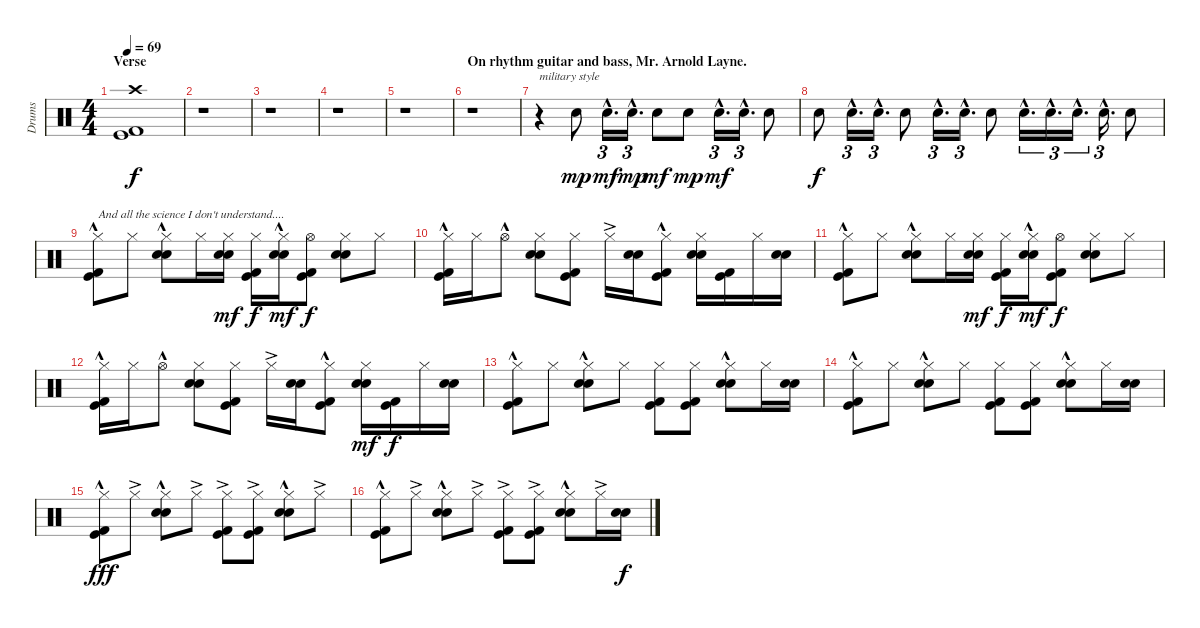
\track ("Drums" "Drums") {instrument percussion}
\staff {score}
\articulation defaults
\ts (4 4)
\section ("" "Verse")
\tempo 69
\clef neutral
\ks c
("Crash high (hit)" "Kick (hit) 2" "Kick (hit)").1{dy f} |
r.1 |
r.1 |
r.1 |
r.1 |
\section ("" "On rhythm guitar and bass, Mr. Arnold Layne.")
r.1 |
r.4{txt "military style "} "Snare (hit) 2".8{dy mp} "Snare (hit) 2"{hac}.16{d tu (3 2) dy mf} "Snare (hit) 2"{hac}.16{d tu (3 2) dy mp} "Snare (hit) 2".8{dy mf} "Snare (hit) 2".8{dy mp} "Snare (hit) 2"{hac}.16{d tu (3 2) dy mf} "Snare (hit) 2"{hac}.16{d tu (3 2)} "Snare (hit) 2".8 |
"Snare (hit) 2".8{dy f} "Snare (hit) 2"{hac}.16{d tu (3 2)} "Snare (hit) 2"{hac}.16{d tu (3 2)} "Snare (hit) 2".8 "Snare (hit) 2"{hac}.16{d tu (3 2)} "Snare (hit) 2"{hac}.16{d tu (3 2)} "Snare (hit) 2".8 "Snare (hit) 2"{hac}.16{d tu (3 2)} "Snare (hit) 2"{hac}.16{d tu (3 2)} "Snare (hit) 2"{hac}.16{d tu (3 2)} "Snare (hit) 2"{hac}.16{d tu (3 2)} "Snare (hit) 2".8 |
("Hi-Hat (closed)"{hac} "Kick (hit) 2" "Kick (hit)").8{txt "And all the science I don't understand...."} "Hi-Hat (closed)".8 ("Hi-Hat (closed)"{hac} "Snare (hit) 2" "Electric Snare (hit)").8 "Hi-Hat (closed)".16 ("Hi-Hat (closed)" "Snare (hit) 2" "Electric Snare (hit)").16{dy mf} ("Hi-Hat (closed)" "Kick (hit) 2" "Kick (hit)").16{dy f} ("Hi-Hat (closed)"{hac} "Snare (hit) 2" "Electric Snare (hit)").16{dy mf} ("Hi-Hat (open)" "Kick (hit) 2" "Kick (hit)").8{dy f} ("Hi-Hat (closed)" "Snare (hit) 2" "Electric Snare (hit)").8 "Hi-Hat (closed)".8 |
("Hi-Hat (closed)"{hac} "Kick (hit) 2" "Kick (hit)").16 "Hi-Hat (closed)".16 "Hi-Hat (open)"{hac}.8 ("Hi-Hat (closed)" "Snare (hit) 2" "Electric Snare (hit)").8 ("Hi-Hat (closed)" "Kick (hit) 2" "Kick (hit)").8 "Hi-Hat (closed)"{ac}.16 ("Snare (hit) 2" "Electric Snare (hit)").16 ("Hi-Hat (closed)"{hac} "Kick (hit) 2" "Kick (hit)").8 ("Hi-Hat (closed)" "Snare (hit) 2" "Electric Snare (hit)").16 ("Kick (hit) 2" "Kick (hit)").16 "Hi-Hat (closed)".16 ("Snare (hit) 2" "Electric Snare (hit)").16 |
("Hi-Hat (closed)"{hac} "Kick (hit) 2" "Kick (hit)").8 "Hi-Hat (closed)".8 ("Hi-Hat (closed)"{hac} "Snare (hit) 2" "Electric Snare (hit)").8 "Hi-Hat (closed)".16 ("Hi-Hat (closed)" "Snare (hit) 2" "Electric Snare (hit)").16{dy mf} ("Hi-Hat (closed)" "Kick (hit) 2" "Kick (hit)").16{dy f} ("Hi-Hat (closed)"{hac} "Snare (hit) 2" "Electric Snare (hit)").16{dy mf} ("Hi-Hat (open)" "Kick (hit) 2" "Kick (hit)").8{dy f} ("Hi-Hat (closed)" "Snare (hit) 2" "Electric Snare (hit)").8 "Hi-Hat (closed)".8 |
("Hi-Hat (closed)"{hac} "Kick (hit) 2" "Kick (hit)").16 "Hi-Hat (closed)".16 "Hi-Hat (open)"{hac}.8 ("Hi-Hat (closed)" "Snare (hit) 2" "Electric Snare (hit)").8 ("Hi-Hat (closed)" "Kick (hit) 2" "Kick (hit)").8 "Hi-Hat (closed)"{ac}.16 ("Snare (hit) 2" "Electric Snare (hit)").16 ("Hi-Hat (closed)"{hac} "Kick (hit) 2" "Kick (hit)").8 ("Hi-Hat (closed)" "Snare (hit) 2" "Electric Snare (hit)").16{dy mf} ("Kick (hit) 2" "Kick (hit)").16{dy f} "Hi-Hat (closed)".16 ("Snare (hit) 2" "Electric Snare (hit)").16 |
("Hi-Hat (closed)"{hac} "Kick (hit) 2" "Kick (hit)").8 "Hi-Hat (closed)".8 ("Hi-Hat (closed)"{hac} "Snare (hit) 2" "Electric Snare (hit)").8 "Hi-Hat (closed)".8 ("Hi-Hat (closed)" "Kick (hit) 2" "Kick (hit)").8 ("Hi-Hat (closed)" "Kick (hit) 2" "Kick (hit)").8 ("Hi-Hat (closed)"{hac} "Snare (hit) 2" "Electric Snare (hit)").8 "Hi-Hat (closed)".16 ("Snare (hit) 2" "Electric Snare (hit)").16 |
("Hi-Hat (closed)"{hac} "Kick (hit) 2" "Kick (hit)").8 "Hi-Hat (closed)".8 ("Hi-Hat (closed)"{hac} "Snare (hit) 2" "Electric Snare (hit)").8 "Hi-Hat (closed)".8 ("Hi-Hat (closed)" "Kick (hit) 2" "Kick (hit)").8 ("Hi-Hat (closed)" "Kick (hit) 2" "Kick (hit)").8 ("Hi-Hat (closed)"{hac} "Snare (hit) 2" "Electric Snare (hit)").8 "Hi-Hat (closed)".16 ("Snare (hit) 2" "Electric Snare (hit)").16 |
("Hi-Hat (closed)"{hac} "Kick (hit) 2" "Kick (hit)").8{dy fff} "Hi-Hat (closed)"{ac}.8 ("Hi-Hat (closed)"{hac} "Snare (hit) 2" "Electric Snare (hit)").8 "Hi-Hat (closed)"{ac}.8 ("Hi-Hat (closed)"{ac} "Kick (hit) 2" "Kick (hit)").8 ("Hi-Hat (closed)"{ac} "Kick (hit) 2" "Kick (hit)").8 ("Hi-Hat (closed)"{hac} "Snare (hit) 2" "Electric Snare (hit)").8 "Hi-Hat (closed)"{ac}.8 |
("Hi-Hat (closed)"{hac} "Kick (hit) 2" "Kick (hit)").8 "Hi-Hat (closed)"{ac}.8 ("Hi-Hat (closed)"{hac} "Snare (hit) 2" "Electric Snare (hit)").8 "Hi-Hat (closed)"{ac}.8 ("Hi-Hat (closed)"{ac} "Kick (hit) 2" "Kick (hit)").8 ("Hi-Hat (closed)"{ac} "Kick (hit) 2" "Kick (hit)").8 ("Hi-Hat (closed)"{hac} "Snare (hit) 2" "Electric Snare (hit)").8 "Hi-Hat (closed)"{ac}.16 ("Snare (hit) 2" "Electric Snare (hit)").16{dy f}
